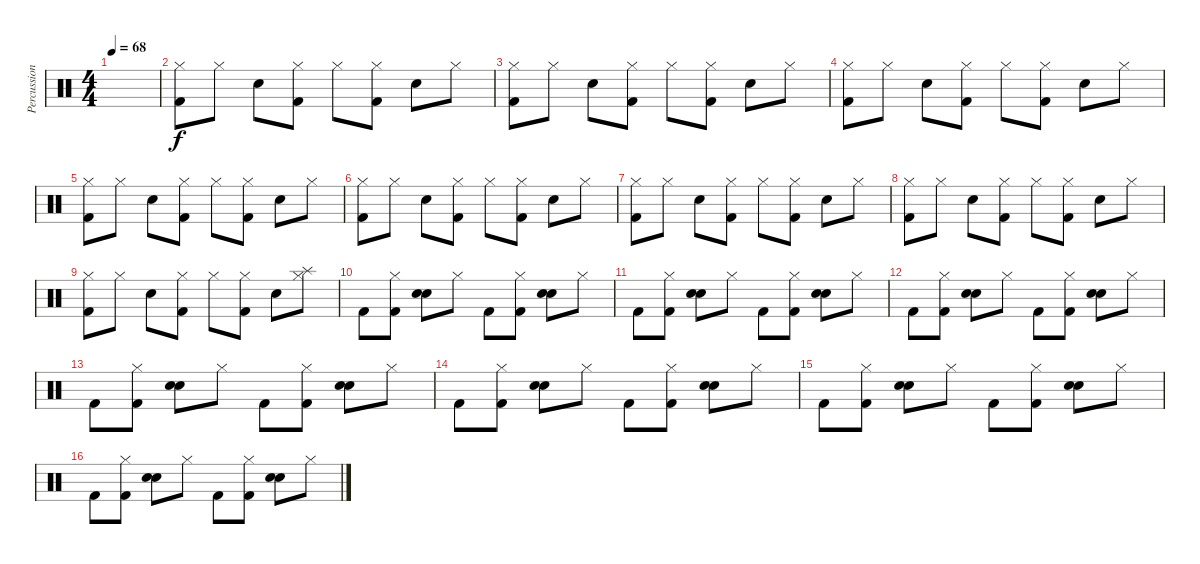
\track ("Percussions" "Percussion") {instrument percussion}
\staff {score}
\articulation defaults
\ts (4 4)
\tempo 68
\clef neutral
\ks c
|
("Hi-Hat (closed)" "Kick (hit) 2").8 "Hi-Hat (closed)".8 "Snare (hit) 2".8 ("Hi-Hat (closed)" "Kick (hit) 2").8 "Hi-Hat (closed)".8 ("Hi-Hat (closed)" "Kick (hit) 2").8 "Snare (hit) 2".8 "Hi-Hat (closed)".8 |
("Hi-Hat (closed)" "Kick (hit) 2").8 "Hi-Hat (closed)".8 "Snare (hit) 2".8 ("Hi-Hat (closed)" "Kick (hit) 2").8 "Hi-Hat (closed)".8 ("Hi-Hat (closed)" "Kick (hit) 2").8 "Snare (hit) 2".8 "Hi-Hat (closed)".8 |
("Hi-Hat (closed)" "Kick (hit) 2").8 "Hi-Hat (closed)".8 "Snare (hit) 2".8 ("Hi-Hat (closed)" "Kick (hit) 2").8 "Hi-Hat (closed)".8 ("Hi-Hat (closed)" "Kick (hit) 2").8 "Snare (hit) 2".8 "Hi-Hat (closed)".8 |
("Hi-Hat (closed)" "Kick (hit) 2").8 "Hi-Hat (closed)".8 "Snare (hit) 2".8 ("Hi-Hat (closed)" "Kick (hit) 2").8 "Hi-Hat (closed)".8 ("Hi-Hat (closed)" "Kick (hit) 2").8 "Snare (hit) 2".8 "Hi-Hat (closed)".8 |
("Hi-Hat (closed)" "Kick (hit) 2").8 "Hi-Hat (closed)".8 "Snare (hit) 2".8 ("Hi-Hat (closed)" "Kick (hit) 2").8 "Hi-Hat (closed)".8 ("Hi-Hat (closed)" "Kick (hit) 2").8 "Snare (hit) 2".8 "Hi-Hat (closed)".8 |
("Hi-Hat (closed)" "Kick (hit) 2").8 "Hi-Hat (closed)".8 "Snare (hit) 2".8 ("Hi-Hat (closed)" "Kick (hit) 2").8 "Hi-Hat (closed)".8 ("Hi-Hat (closed)" "Kick (hit) 2").8 "Snare (hit) 2".8 "Hi-Hat (closed)".8 |
("Hi-Hat (closed)" "Kick (hit) 2").8 "Hi-Hat (closed)".8 "Snare (hit) 2".8 ("Hi-Hat (closed)" "Kick (hit) 2").8 "Hi-Hat (closed)".8 ("Hi-Hat (closed)" "Kick (hit) 2").8 "Snare (hit) 2".8 "Hi-Hat (closed)".8 |
("Hi-Hat (closed)" "Kick (hit) 2").8 "Hi-Hat (closed)".8 "Snare (hit) 2".8 ("Hi-Hat (closed)" "Kick (hit) 2").8 "Hi-Hat (closed)".8 ("Hi-Hat (closed)" "Kick (hit) 2").8 "Snare (hit) 2".8 ("Hi-Hat (closed)" "Splash (hit)").8 |
"Kick (hit) 2".8 ("Hi-Hat (closed)" "Kick (hit) 2").8 ("Snare (hit) 2" "Electric Snare (hit)").8 "Hi-Hat (closed)".8 "Kick (hit) 2".8 ("Hi-Hat (closed)" "Kick (hit) 2").8 ("Snare (hit) 2" "Electric Snare (hit)").8 "Hi-Hat (closed)".8 |
"Kick (hit) 2".8 ("Hi-Hat (closed)" "Kick (hit) 2").8 ("Snare (hit) 2" "Electric Snare (hit)").8 "Hi-Hat (closed)".8 "Kick (hit) 2".8 ("Hi-Hat (closed)" "Kick (hit) 2").8 ("Snare (hit) 2" "Electric Snare (hit)").8 "Hi-Hat (closed)".8 |
"Kick (hit) 2".8 ("Hi-Hat (closed)" "Kick (hit) 2").8 ("Snare (hit) 2" "Electric Snare (hit)").8 "Hi-Hat (closed)".8 "Kick (hit) 2".8 ("Hi-Hat (closed)" "Kick (hit) 2").8 ("Snare (hit) 2" "Electric Snare (hit)").8 "Hi-Hat (closed)".8 |
"Kick (hit) 2".8 ("Hi-Hat (closed)" "Kick (hit) 2").8 ("Snare (hit) 2" "Electric Snare (hit)").8 "Hi-Hat (closed)".8 "Kick (hit) 2".8 ("Hi-Hat (closed)" "Kick (hit) 2").8 ("Snare (hit) 2" "Electric Snare (hit)").8 "Hi-Hat (closed)".8 |
"Kick (hit) 2".8 ("Hi-Hat (closed)" "Kick (hit) 2").8 ("Snare (hit) 2" "Electric Snare (hit)").8 "Hi-Hat (closed)".8 "Kick (hit) 2".8 ("Hi-Hat (closed)" "Kick (hit) 2").8 ("Snare (hit) 2" "Electric Snare (hit)").8 "Hi-Hat (closed)".8 |
"Kick (hit) 2".8 ("Hi-Hat (closed)" "Kick (hit) 2").8 ("Snare (hit) 2" "Electric Snare (hit)").8 "Hi-Hat (closed)".8 "Kick (hit) 2".8 ("Hi-Hat (closed)" "Kick (hit) 2").8 ("Snare (hit) 2" "Electric Snare (hit)").8 "Hi-Hat (closed)".8 |
"Kick (hit) 2".8 ("Hi-Hat (closed)" "Kick (hit) 2").8 ("Snare (hit) 2" "Electric Snare (hit)").8 "Hi-Hat (closed)".8 "Kick (hit) 2".8 ("Hi-Hat (closed)" "Kick (hit) 2").8 ("Snare (hit) 2" "Electric Snare (hit)").8 "Hi-Hat (closed)".8
